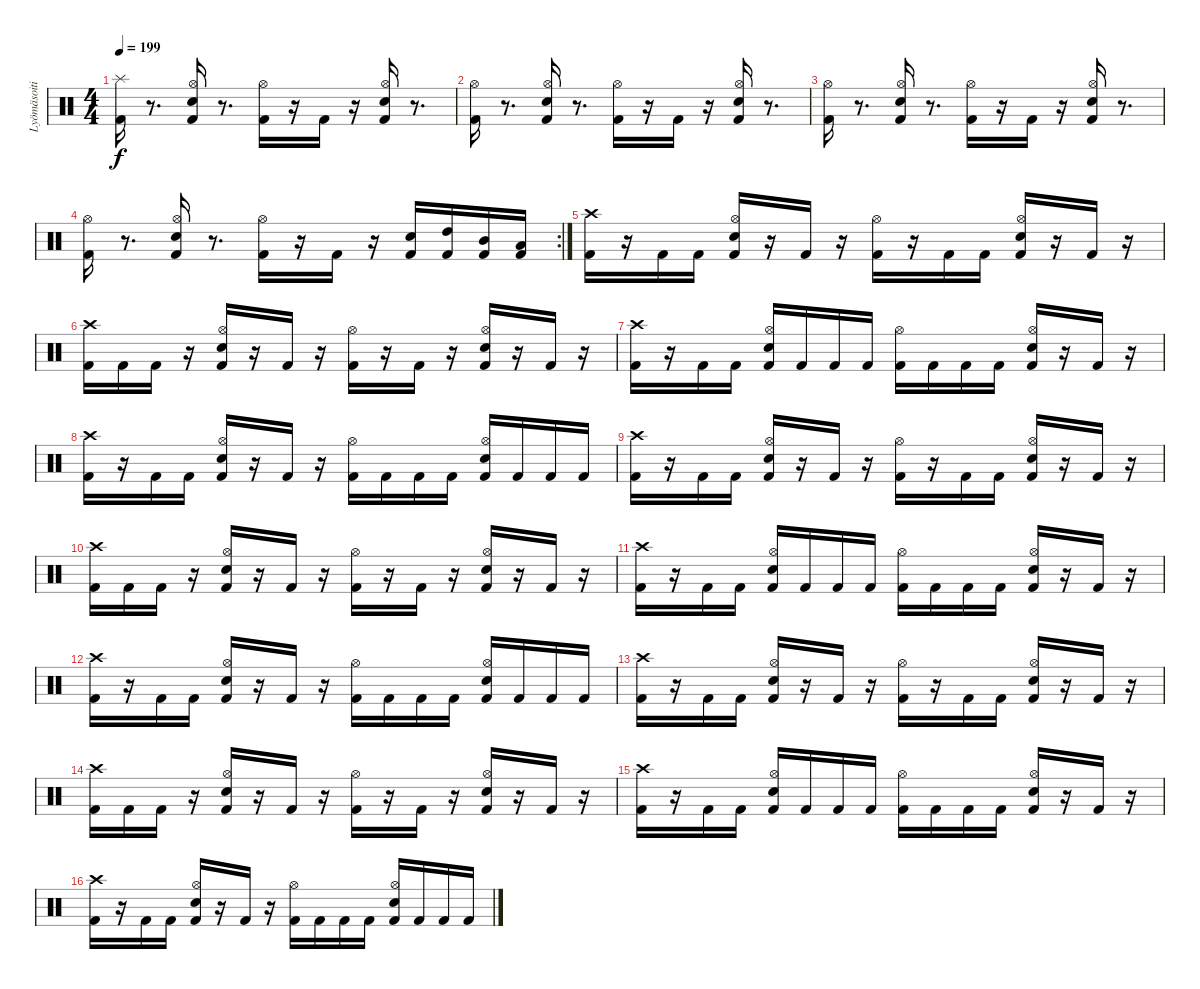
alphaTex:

\track ("Lyömäsoitin" "Lyömäsoiti") {instrument percussion}
\staff {score}
\articulation defaults
\ts (4 4)
\tempo 199
\clef neutral
\ks c
("Kick (hit) 2" "Splash (hit)").16{dy f} r.8{d} ("Kick (hit) 2" "Hi-Hat (open)" "Snare (hit) 2").16 r.8{d} ("Kick (hit) 2" "Hi-Hat (open)").16 r.16 "Kick (hit) 2".16 r.16 ("Kick (hit) 2" "Hi-Hat (open)" "Snare (hit) 2").16 r.8{d} |
("Kick (hit) 2" "Hi-Hat (open)").16 r.8{d} ("Kick (hit) 2" "Hi-Hat (open)" "Snare (hit) 2").16 r.8{d} ("Kick (hit) 2" "Hi-Hat (open)").16 r.16 "Kick (hit) 2".16 r.16 ("Kick (hit) 2" "Hi-Hat (open)" "Snare (hit) 2").16 r.8{d} |
("Kick (hit) 2" "Hi-Hat (open)").16 r.8{d} ("Kick (hit) 2" "Hi-Hat (open)" "Snare (hit) 2").16 r.8{d} ("Kick (hit) 2" "Hi-Hat (open)").16 r.16 "Kick (hit) 2".16 r.16 ("Kick (hit) 2" "Hi-Hat (open)" "Snare (hit) 2").16 r.8{d} |
\rc 2
("Kick (hit) 2" "Hi-Hat (open)").16 r.8{d} ("Kick (hit) 2" "Hi-Hat (open)" "Snare (hit) 2").16 r.8{d} ("Kick (hit) 2" "Hi-Hat (open)").16 r.16 "Kick (hit) 2".16 r.16 ("Kick (hit) 2" "Snare (hit) 2").16 ("Kick (hit) 2" "High Tom (hit)").16 ("Kick (hit) 2" "Mid Tom (hit)").16 ("Kick (hit) 2" "Low Tom (hit)").16 |
("Kick (hit) 2" "Crash high (hit)").16 r.16 "Kick (hit) 2".16 "Kick (hit) 2".16 ("Kick (hit) 2" "Snare (hit) 2" "Hi-Hat (open)").16 r.16 "Kick (hit) 2".16 r.16 ("Kick (hit) 2" "Hi-Hat (open)").16 r.16 "Kick (hit) 2".16 "Kick (hit) 2".16 ("Kick (hit) 2" "Snare (hit) 2" "Hi-Hat (open)").16 r.16 "Kick (hit) 2".16 r.16 |
("Kick (hit) 2" "Crash high (hit)").16 "Kick (hit) 2".16 "Kick (hit) 2".16 r.16 ("Kick (hit) 2" "Snare (hit) 2" "Hi-Hat (open)").16 r.16 "Kick (hit) 2".16 r.16 ("Kick (hit) 2" "Hi-Hat (open)").16 r.16 "Kick (hit) 2".16 r.16 ("Kick (hit) 2" "Snare (hit) 2" "Hi-Hat (open)").16 r.16 "Kick (hit) 2".16 r.16 |
("Kick (hit) 2" "Crash high (hit)").16 r.16 "Kick (hit) 2".16 "Kick (hit) 2".16 ("Kick (hit) 2" "Snare (hit) 2" "Hi-Hat (open)").16 "Kick (hit) 2".16 "Kick (hit) 2".16 "Kick (hit) 2".16 ("Kick (hit) 2" "Hi-Hat (open)").16 "Kick (hit) 2".16 "Kick (hit) 2".16 "Kick (hit) 2".16 ("Kick (hit) 2" "Snare (hit) 2" "Hi-Hat (open)").16 r.16 "Kick (hit) 2".16 r.16 |
("Kick (hit) 2" "Crash high (hit)").16 r.16 "Kick (hit) 2".16 "Kick (hit) 2".16 ("Kick (hit) 2" "Snare (hit) 2" "Hi-Hat (open)").16 r.16 "Kick (hit) 2".16 r.16 ("Kick (hit) 2" "Hi-Hat (open)").16 "Kick (hit) 2".16 "Kick (hit) 2".16 "Kick (hit) 2".16 ("Kick (hit) 2" "Snare (hit) 2" "Hi-Hat (open)").16 "Kick (hit) 2".16 "Kick (hit) 2".16 "Kick (hit) 2".16 |
("Kick (hit) 2" "Crash high (hit)").16 r.16 "Kick (hit) 2".16 "Kick (hit) 2".16 ("Kick (hit) 2" "Snare (hit) 2" "Hi-Hat (open)").16 r.16 "Kick (hit) 2".16 r.16 ("Kick (hit) 2" "Hi-Hat (open)").16 r.16 "Kick (hit) 2".16 "Kick (hit) 2".16 ("Kick (hit) 2" "Snare (hit) 2" "Hi-Hat (open)").16 r.16 "Kick (hit) 2".16 r.16 |
("Kick (hit) 2" "Crash high (hit)").16 "Kick (hit) 2".16 "Kick (hit) 2".16 r.16 ("Kick (hit) 2" "Snare (hit) 2" "Hi-Hat (open)").16 r.16 "Kick (hit) 2".16 r.16 ("Kick (hit) 2" "Hi-Hat (open)").16 r.16 "Kick (hit) 2".16 r.16 ("Kick (hit) 2" "Snare (hit) 2" "Hi-Hat (open)").16 r.16 "Kick (hit) 2".16 r.16 |
("Kick (hit) 2" "Crash high (hit)").16 r.16 "Kick (hit) 2".16 "Kick (hit) 2".16 ("Kick (hit) 2" "Snare (hit) 2" "Hi-Hat (open)").16 "Kick (hit) 2".16 "Kick (hit) 2".16 "Kick (hit) 2".16 ("Kick (hit) 2" "Hi-Hat (open)").16 "Kick (hit) 2".16 "Kick (hit) 2".16 "Kick (hit) 2".16 ("Kick (hit) 2" "Snare (hit) 2" "Hi-Hat (open)").16 r.16 "Kick (hit) 2".16 r.16 |
("Kick (hit) 2" "Crash high (hit)").16 r.16 "Kick (hit) 2".16 "Kick (hit) 2".16 ("Kick (hit) 2" "Snare (hit) 2" "Hi-Hat (open)").16 r.16 "Kick (hit) 2".16 r.16 ("Kick (hit) 2" "Hi-Hat (open)").16 "Kick (hit) 2".16 "Kick (hit) 2".16 "Kick (hit) 2".16 ("Kick (hit) 2" "Snare (hit) 2" "Hi-Hat (open)").16 "Kick (hit) 2".16 "Kick (hit) 2".16 "Kick (hit) 2".16 |
("Kick (hit) 2" "Crash high (hit)").16 r.16 "Kick (hit) 2".16 "Kick (hit) 2".16 ("Kick (hit) 2" "Snare (hit) 2" "Hi-Hat (open)").16 r.16 "Kick (hit) 2".16 r.16 ("Kick (hit) 2" "Hi-Hat (open)").16 r.16 "Kick (hit) 2".16 "Kick (hit) 2".16 ("Kick (hit) 2" "Snare (hit) 2" "Hi-Hat (open)").16 r.16 "Kick (hit) 2".16 r.16 |
("Kick (hit) 2" "Crash high (hit)").16 "Kick (hit) 2".16 "Kick (hit) 2".16 r.16 ("Kick (hit) 2" "Snare (hit) 2" "Hi-Hat (open)").16 r.16 "Kick (hit) 2".16 r.16 ("Kick (hit) 2" "Hi-Hat (open)").16 r.16 "Kick (hit) 2".16 r.16 ("Kick (hit) 2" "Snare (hit) 2" "Hi-Hat (open)").16 r.16 "Kick (hit) 2".16 r.16 |
("Kick (hit) 2" "Crash high (hit)").16 r.16 "Kick (hit) 2".16 "Kick (hit) 2".16 ("Kick (hit) 2" "Snare (hit) 2" "Hi-Hat (open)").16 "Kick (hit) 2".16 "Kick (hit) 2".16 "Kick (hit) 2".16 ("Kick (hit) 2" "Hi-Hat (open)").16 "Kick (hit) 2".16 "Kick (hit) 2".16 "Kick (hit) 2".16 ("Kick (hit) 2" "Snare (hit) 2" "Hi-Hat (open)").16 r.16 "Kick (hit) 2".16 r.16 |
("Kick (hit) 2" "Crash high (hit)").16 r.16 "Kick (hit) 2".16 "Kick (hit) 2".16 ("Kick (hit) 2" "Snare (hit) 2" "Hi-Hat (open)").16 r.16 "Kick (hit) 2".16 r.16 ("Kick (hit) 2" "Hi-Hat (open)").16 "Kick (hit) 2".16 "Kick (hit) 2".16 "Kick (hit) 2".16 ("Kick (hit) 2" "Snare (hit) 2" "Hi-Hat (open)").16 "Kick (hit) 2".16 "Kick (hit) 2".16 "Kick (hit) 2".16
